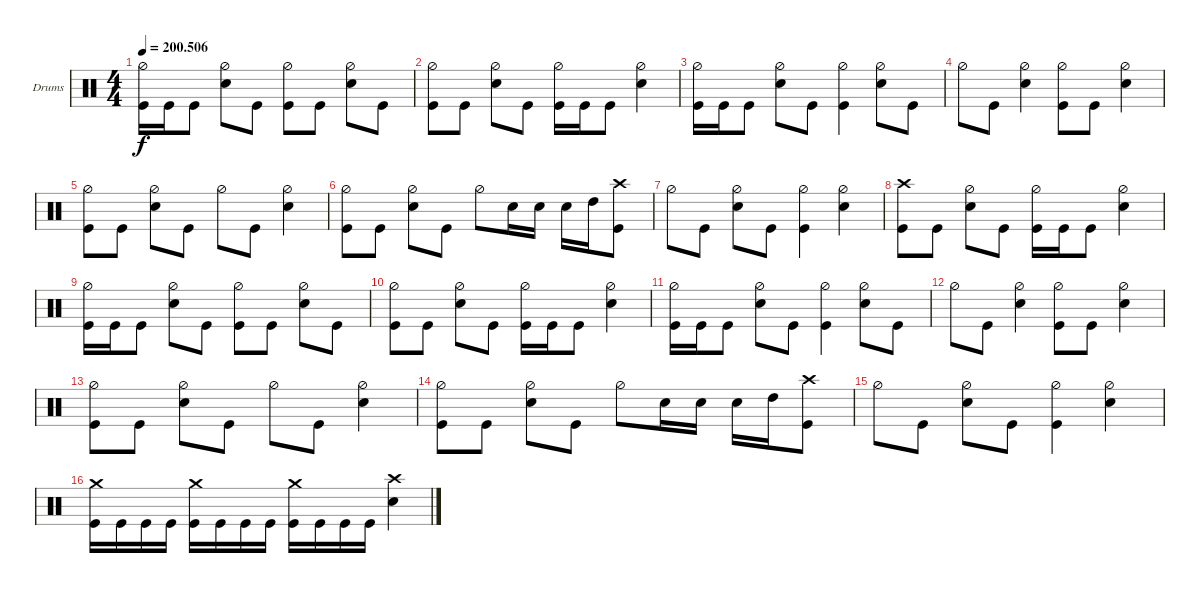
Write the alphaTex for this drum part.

\bracketExtendMode groupsimilarinstruments
\firstSystemTrackNameOrientation horizontal
\otherSystemsTrackNameOrientation horizontal
\track ("Emile Bardou" "Drums") {instrument percussion}
\staff {score}
\articulation defaults
\ts (4 4)
\tempo
200.506
\accidentals auto
\clef neutral
\ottava regular
\simile none
\ks c
("Kick (hit)" "Hi-Hat (half)").16{dy f} "Kick (hit)".16 "Kick (hit)".8 ("Snare (hit) 2" "Hi-Hat (half)").8 "Kick (hit)".8 ("Hi-Hat (half)" "Kick (hit)").8 "Kick (hit)".8 ("Snare (hit) 2" "Hi-Hat (half)").8 "Kick (hit)".8 |
("Kick (hit)" "Hi-Hat (half)").8 "Kick (hit)".8 ("Snare (hit) 2" "Hi-Hat (half)").8 "Kick (hit)".8 ("Kick (hit)" "Hi-Hat (half)").16 "Kick (hit)".16 "Kick (hit)".8 ("Snare (hit) 2" "Hi-Hat (half)").4 |
("Kick (hit)" "Hi-Hat (half)").16 "Kick (hit)".16 "Kick (hit)".8 ("Snare (hit) 2" "Hi-Hat (half)").8 "Kick (hit)".8 ("Kick (hit)" "Hi-Hat (half)").4 ("Snare (hit) 2" "Hi-Hat (half)").8 "Kick (hit)".8 |
"Hi-Hat (half)".8 "Kick (hit)".8 ("Snare (hit) 2" "Hi-Hat (half)").4 ("Kick (hit)" "Hi-Hat (half)").8 "Kick (hit)".8 ("Snare (hit) 2" "Hi-Hat (half)").4 |
("Kick (hit)" "Hi-Hat (half)").8 "Kick (hit)".8 ("Snare (hit) 2" "Hi-Hat (half)").8 "Kick (hit)".8 "Hi-Hat (half)".8 "Kick (hit)".8 ("Snare (hit) 2" "Hi-Hat (half)").4 |
("Kick (hit)" "Hi-Hat (half)").8 "Kick (hit)".8 ("Snare (hit) 2" "Hi-Hat (half)").8 "Kick (hit)".8 "Hi-Hat (half)".8 "Snare (hit) 2".16 "Snare (hit) 2".16 "Snare (hit) 2".16 "High Tom (hit)".16 ("Kick (hit)" "Crash high (hit)").8 |
"Hi-Hat (half)".8 "Kick (hit)".8 ("Snare (hit) 2" "Hi-Hat (half)").8 "Kick (hit)".8 ("Kick (hit)" "Hi-Hat (half)").4 ("Snare (hit) 2" "Hi-Hat (half)").4 |
("Kick (hit)" "Crash high (hit)").8 "Kick (hit)".8 ("Snare (hit) 2" "Hi-Hat (half)").8 "Kick (hit)".8 ("Kick (hit)" "Hi-Hat (half)").16 "Kick (hit)".16 "Kick (hit)".8 ("Snare (hit) 2" "Hi-Hat (half)").4 |
("Kick (hit)" "Hi-Hat (half)").16 "Kick (hit)".16 "Kick (hit)".8 ("Snare (hit) 2" "Hi-Hat (half)").8 "Kick (hit)".8 ("Hi-Hat (half)" "Kick (hit)").8 "Kick (hit)".8 ("Snare (hit) 2" "Hi-Hat (half)").8 "Kick (hit)".8 |
("Kick (hit)" "Hi-Hat (half)").8 "Kick (hit)".8 ("Snare (hit) 2" "Hi-Hat (half)").8 "Kick (hit)".8 ("Kick (hit)" "Hi-Hat (half)").16 "Kick (hit)".16 "Kick (hit)".8 ("Snare (hit) 2" "Hi-Hat (half)").4 |
("Kick (hit)" "Hi-Hat (half)").16 "Kick (hit)".16 "Kick (hit)".8 ("Snare (hit) 2" "Hi-Hat (half)").8 "Kick (hit)".8 ("Kick (hit)" "Hi-Hat (half)").4 ("Snare (hit) 2" "Hi-Hat (half)").8 "Kick (hit)".8 |
"Hi-Hat (half)".8 "Kick (hit)".8 ("Snare (hit) 2" "Hi-Hat (half)").4 ("Kick (hit)" "Hi-Hat (half)").8 "Kick (hit)".8 ("Snare (hit) 2" "Hi-Hat (half)").4 |
("Kick (hit)" "Hi-Hat (half)").8 "Kick (hit)".8 ("Snare (hit) 2" "Hi-Hat (half)").8 "Kick (hit)".8 "Hi-Hat (half)".8 "Kick (hit)".8 ("Snare (hit) 2" "Hi-Hat (half)").4 |
("Kick (hit)" "Hi-Hat (half)").8 "Kick (hit)".8 ("Snare (hit) 2" "Hi-Hat (half)").8 "Kick (hit)".8 "Hi-Hat (half)".8 "Snare (hit) 2".16 "Snare (hit) 2".16 "Snare (hit) 2".16 "High Tom (hit)".16 ("Kick (hit)" "Crash high (hit)").8 |
"Hi-Hat (half)".8 "Kick (hit)".8 ("Snare (hit) 2" "Hi-Hat (half)").8 "Kick (hit)".8 ("Kick (hit)" "Hi-Hat (half)").4 ("Snare (hit) 2" "Hi-Hat (half)").4 |
("Crash medium (hit)" "Kick (hit)").16 "Kick (hit)".16 "Kick (hit)".16 "Kick (hit)".16 ("Crash medium (hit)" "Kick (hit)").16 "Kick (hit)".16 "Kick (hit)".16 "Kick (hit)".16 ("Crash medium (hit)" "Kick (hit)").16 "Kick (hit)".16 "Kick (hit)".16 "Kick (hit)".16 ("Crash high (hit)" "Snare (hit) 2").4
